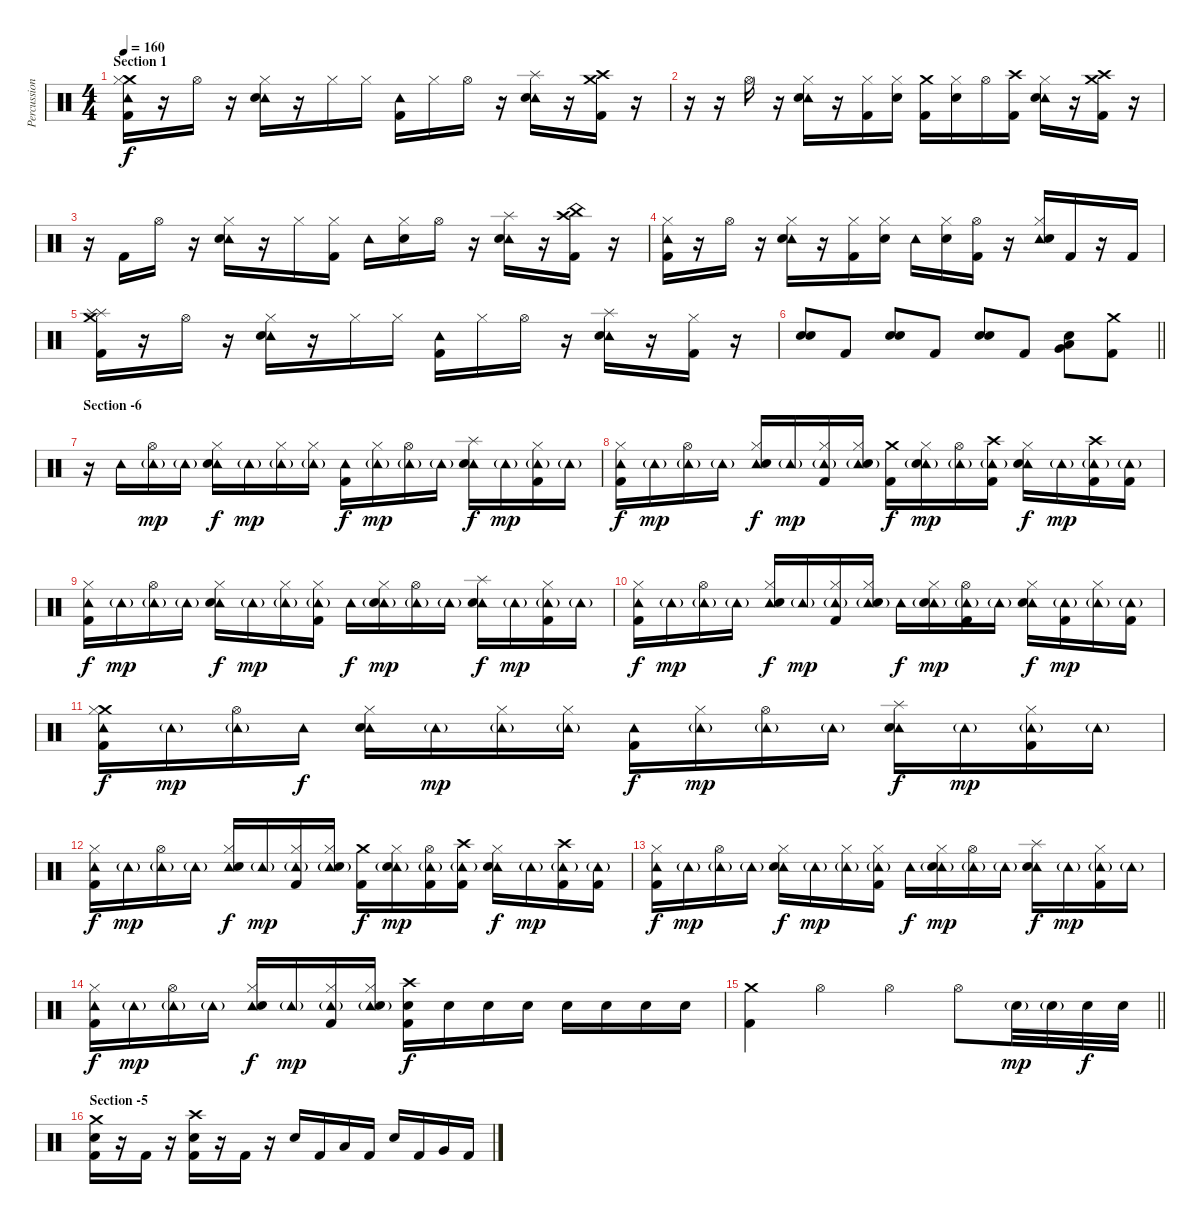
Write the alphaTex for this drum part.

\track ("Percussion" "Percussion") {instrument percussion}
\staff {score}
\articulation defaults
\ts (4 4)
\section ("" "Section 1")
\tempo 160
\clef neutral
\ks c
("Crash medium (hit)" "Tambourine (hit)" "Hi-Hat (closed)" "Kick (hit) 2").16{dy f} r.16 "Hi-Hat (open)".16 r.16 ("Tambourine (hit)" "Hi-Hat (closed)" "Electric Snare (hit)").16 r.16 "Hi-Hat (closed)".16 "Hi-Hat (closed)".16 ("Tambourine (hit)" "Kick (hit) 2").16 "Hi-Hat (closed)".16 "Hi-Hat (open)".16 r.16 ("Tambourine (hit)" "Electric Snare (hit)" "Splash (hit)").16 r.16 ("Crash high (hit)" "Kick (hit) 2" "Crash medium (hit)").16 r.16 |
r.16 r.16 "Hi-Hat (open)".16 r.16 ("Tambourine (hit)" "Hi-Hat (closed)" "Electric Snare (hit)").16 r.16 ("Hi-Hat (closed)" "Kick (hit) 2").16 ("Electric Snare (hit)" "Hi-Hat (closed)").16 ("Crash medium (hit)" "Kick (hit) 2").16 ("Hi-Hat (closed)" "Electric Snare (hit)").16 "Hi-Hat (open)".16 ("Crash high (hit)" "Kick (hit) 2").16 ("Tambourine (hit)" "Hi-Hat (closed)" "Electric Snare (hit)").16 r.16 ("Crash high (hit)" "Crash medium (hit)" "Kick (hit) 2").16 r.16 |
r.16 "Kick (hit) 2".16 "Hi-Hat (open)".16 r.16 ("Tambourine (hit)" "Hi-Hat (closed)" "Electric Snare (hit)").16 r.16 "Hi-Hat (closed)".16 ("Hi-Hat (closed)" "Kick (hit) 2").16 "Tambourine (hit)".16 ("Hi-Hat (closed)" "Electric Snare (hit)").16 "Hi-Hat (open)".16 r.16 ("Tambourine (hit)" "Electric Snare (hit)" "Splash (hit)").16 r.16 ("China (hit)" "Crash high (hit)" "Kick (hit) 2").16 r.16 |
("Tambourine (hit)" "Hi-Hat (closed)" "Kick (hit) 2").16 r.16 "Hi-Hat (open)".16 r.16 ("Tambourine (hit)" "Hi-Hat (closed)" "Electric Snare (hit)").16 r.16 ("Hi-Hat (closed)" "Kick (hit) 2").16 ("Electric Snare (hit)" "Hi-Hat (closed)").16 "Tambourine (hit)".16 ("Hi-Hat (closed)" "Electric Snare (hit)").16 ("Hi-Hat (open)" "Kick (hit) 2").16 r.16 ("Tambourine (hit)" "Hi-Hat (closed)" "Electric Snare (hit)").16 "Kick (hit) 2".16 r.16 "Kick (hit) 2".16 |
("Splash (hit)" "Splash (hit)" "Crash medium (hit)" "Kick (hit) 2").16 r.16 "Hi-Hat (open)".16 r.16 ("Tambourine (hit)" "Hi-Hat (closed)" "Electric Snare (hit)").16 r.16 "Hi-Hat (closed)".16 "Hi-Hat (closed)".16 ("Tambourine (hit)" "Kick (hit) 2").16 "Hi-Hat (closed)".16 "Hi-Hat (open)".16 r.16 ("Tambourine (hit)" "Electric Snare (hit)" "Splash (hit)").16 r.16 ("Hi-Hat (closed)" "Kick (hit) 2").16 r.16 |
\barLineRight lightlight
("Electric Snare (hit)" "Electric Snare (hit)").8{bd 60} "Kick (hit) 2".8 ("Electric Snare (hit)" "Electric Snare (hit)").8{bd 60} "Kick (hit) 2".8 ("Electric Snare (hit)" "Electric Snare (hit)").8{bd 60} "Kick (hit) 2".8 ("Electric Snare (hit)" "Low Tom (hit)" "Very Low Tom (hit)").8{bd 60} ("Kick (hit) 2" "Crash medium (hit)").8 |
\section ("" "Section -6")
r.16 "Tambourine (hit)".16 ("Tambourine (hit)"{g} "Hi-Hat (open)").16{dy mp} "Tambourine (hit)"{g}.16 ("Tambourine (hit)" "Hi-Hat (closed)" "Electric Snare (hit)").16{dy f} "Tambourine (hit)"{g}.16{dy mp} ("Tambourine (hit)"{g} "Hi-Hat (closed)").16 ("Tambourine (hit)"{g} "Hi-Hat (closed)").16 ("Tambourine (hit)" "Kick (hit) 2").16{dy f} ("Tambourine (hit)"{g} "Hi-Hat (closed)").16{dy mp} ("Tambourine (hit)"{g} "Hi-Hat (open)").16 "Tambourine (hit)"{g}.16 ("Tambourine (hit)" "Electric Snare (hit)" "Splash (hit)").16{dy f} "Tambourine (hit)"{g}.16{dy mp} ("Tambourine (hit)"{g} "Hi-Hat (closed)" "Kick (hit) 2").16 "Tambourine (hit)"{g}.16 |
("Tambourine (hit)" "Hi-Hat (closed)" "Kick (hit) 2").16{dy f} "Tambourine (hit)"{g}.16{dy mp} ("Tambourine (hit)"{g} "Hi-Hat (open)").16 "Tambourine (hit)"{g}.16 ("Tambourine (hit)" "Hi-Hat (closed)" "Electric Snare (hit)").16{dy f} "Tambourine (hit)"{g}.16{dy mp} ("Tambourine (hit)"{g} "Hi-Hat (closed)" "Kick (hit) 2").16 ("Tambourine (hit)"{g} "Electric Snare (hit)" "Hi-Hat (closed)").16 ("Crash medium (hit)" "Kick (hit) 2").16{dy f} ("Tambourine (hit)"{g} "Hi-Hat (closed)" "Electric Snare (hit)").16{dy mp} ("Tambourine (hit)"{g} "Hi-Hat (open)").16 ("Tambourine (hit)"{g} "Crash high (hit)" "Kick (hit) 2").16 ("Tambourine (hit)" "Hi-Hat (closed)" "Electric Snare (hit)").16{dy f} "Tambourine (hit)"{g}.16{dy mp} ("Tambourine (hit)"{g} "Crash high (hit)" "Kick (hit) 2").16 ("Tambourine (hit)"{g} "Kick (hit) 2").16 |
("Tambourine (hit)" "Hi-Hat (closed)" "Kick (hit) 2").16{dy f} "Tambourine (hit)"{g}.16{dy mp} ("Tambourine (hit)"{g} "Hi-Hat (open)").16 "Tambourine (hit)"{g}.16 ("Tambourine (hit)" "Hi-Hat (closed)" "Electric Snare (hit)").16{dy f} "Tambourine (hit)"{g}.16{dy mp} ("Tambourine (hit)"{g} "Hi-Hat (closed)").16 ("Tambourine (hit)"{g} "Hi-Hat (closed)" "Kick (hit) 2").16 "Tambourine (hit)".16{dy f} ("Tambourine (hit)"{g} "Hi-Hat (closed)" "Electric Snare (hit)").16{dy mp} ("Tambourine (hit)"{g} "Hi-Hat (open)").16 "Tambourine (hit)"{g}.16 ("Tambourine (hit)" "Electric Snare (hit)" "Splash (hit)").16{dy f} "Tambourine (hit)"{g}.16{dy mp} ("Tambourine (hit)"{g} "Hi-Hat (closed)" "Kick (hit) 2").16 "Tambourine (hit)"{g}.16 |
("Tambourine (hit)" "Hi-Hat (closed)" "Kick (hit) 2").16{dy f} "Tambourine (hit)"{g}.16{dy mp} ("Tambourine (hit)"{g} "Hi-Hat (open)").16 "Tambourine (hit)"{g}.16 ("Tambourine (hit)" "Hi-Hat (closed)" "Electric Snare (hit)").16{dy f} "Tambourine (hit)"{g}.16{dy mp} ("Tambourine (hit)"{g} "Hi-Hat (closed)" "Kick (hit) 2").16 ("Tambourine (hit)"{g} "Electric Snare (hit)" "Hi-Hat (closed)").16 "Tambourine (hit)".16{dy f} ("Tambourine (hit)"{g} "Hi-Hat (closed)" "Electric Snare (hit)").16{dy mp} ("Tambourine (hit)"{g} "Hi-Hat (open)" "Kick (hit) 2").16 "Tambourine (hit)"{g}.16 ("Tambourine (hit)" "Hi-Hat (closed)" "Electric Snare (hit)").16{dy f} ("Tambourine (hit)"{g} "Kick (hit) 2").16{dy mp} ("Tambourine (hit)"{g} "Hi-Hat (closed)").16 ("Tambourine (hit)"{g} "Kick (hit) 2").16 |
("Crash medium (hit)" "Tambourine (hit)" "Hi-Hat (closed)" "Kick (hit) 2").16{dy f} "Tambourine (hit)"{g}.16{dy mp} ("Tambourine (hit)"{g} "Hi-Hat (open)").16 "Tambourine (hit)".16{dy f} ("Tambourine (hit)" "Hi-Hat (closed)" "Electric Snare (hit)").16 "Tambourine (hit)"{g}.16{dy mp} ("Tambourine (hit)"{g} "Hi-Hat (closed)").16 ("Tambourine (hit)"{g} "Hi-Hat (closed)").16 ("Tambourine (hit)" "Kick (hit) 2").16{dy f} ("Tambourine (hit)"{g} "Hi-Hat (closed)").16{dy mp} ("Tambourine (hit)"{g} "Hi-Hat (open)").16 "Tambourine (hit)"{g}.16 ("Tambourine (hit)" "Electric Snare (hit)" "Splash (hit)").16{dy f} "Tambourine (hit)"{g}.16{dy mp} ("Tambourine (hit)"{g} "Hi-Hat (closed)" "Kick (hit) 2").16 "Tambourine (hit)"{g}.16 |
("Tambourine (hit)" "Hi-Hat (closed)" "Kick (hit) 2").16{dy f} "Tambourine (hit)"{g}.16{dy mp} ("Tambourine (hit)"{g} "Hi-Hat (open)").16 "Tambourine (hit)"{g}.16 ("Tambourine (hit)" "Hi-Hat (closed)" "Electric Snare (hit)").16{dy f} "Tambourine (hit)"{g}.16{dy mp} ("Tambourine (hit)"{g} "Hi-Hat (closed)" "Kick (hit) 2").16 ("Tambourine (hit)"{g} "Electric Snare (hit)" "Hi-Hat (closed)").16 ("Crash medium (hit)" "Kick (hit) 2").16{dy f} ("Tambourine (hit)"{g} "Hi-Hat (closed)" "Electric Snare (hit)").16{dy mp} ("Tambourine (hit)"{g} "Hi-Hat (open)" "Kick (hit) 2").16 ("Tambourine (hit)"{g} "Crash high (hit)" "Kick (hit) 2").16 ("Tambourine (hit)" "Hi-Hat (closed)" "Electric Snare (hit)").16{dy f} "Tambourine (hit)"{g}.16{dy mp} ("Tambourine (hit)"{g} "Crash high (hit)" "Kick (hit) 2").16 ("Tambourine (hit)"{g} "Kick (hit) 2").16 |
("Tambourine (hit)" "Hi-Hat (closed)" "Kick (hit) 2").16{dy f} "Tambourine (hit)"{g}.16{dy mp} ("Tambourine (hit)"{g} "Hi-Hat (open)").16 "Tambourine (hit)"{g}.16 ("Tambourine (hit)" "Hi-Hat (closed)" "Electric Snare (hit)").16{dy f} "Tambourine (hit)"{g}.16{dy mp} ("Tambourine (hit)"{g} "Hi-Hat (closed)").16 ("Tambourine (hit)"{g} "Hi-Hat (closed)" "Kick (hit) 2").16 "Tambourine (hit)".16{dy f} ("Tambourine (hit)"{g} "Hi-Hat (closed)" "Electric Snare (hit)").16{dy mp} ("Tambourine (hit)"{g} "Hi-Hat (open)").16 "Tambourine (hit)"{g}.16 ("Tambourine (hit)" "Electric Snare (hit)" "Splash (hit)").16{dy f} "Tambourine (hit)"{g}.16{dy mp} ("Tambourine (hit)"{g} "Hi-Hat (closed)" "Kick (hit) 2").16 "Tambourine (hit)"{g}.16 |
("Tambourine (hit)" "Hi-Hat (closed)" "Kick (hit) 2").16{dy f} "Tambourine (hit)"{g}.16{dy mp} ("Tambourine (hit)"{g} "Hi-Hat (open)").16 "Tambourine (hit)"{g}.16 ("Tambourine (hit)" "Hi-Hat (closed)" "Electric Snare (hit)").16{dy f} "Tambourine (hit)"{g}.16{dy mp} ("Tambourine (hit)"{g} "Hi-Hat (closed)" "Kick (hit) 2").16 ("Tambourine (hit)"{g} "Electric Snare (hit)" "Hi-Hat (closed)").16 ("Crash high (hit)" "Electric Snare (hit)" "Kick (hit) 2").16{dy f} "Electric Snare (hit)".16 "Electric Snare (hit)".16 "Electric Snare (hit)".16 "Electric Snare (hit)".16 "Electric Snare (hit)".16 "Electric Snare (hit)".16 "Electric Snare (hit)".16 |
\barLineRight lightlight
("Crash medium (hit)" "Kick (hit) 2").4 "Hi-Hat (open)".4 "Hi-Hat (open)".4 "Hi-Hat (open)".8 "Electric Snare (hit)"{g}.32{dy mp} "Electric Snare (hit)"{g}.32 "Electric Snare (hit)".32{dy f} "Electric Snare (hit)".32 |
\section ("" "Section -5")
("Crash medium (hit)" "Electric Snare (hit)" "Kick (hit) 2").16 r.16 "Kick (hit) 2".16 r.16 ("Crash high (hit)" "Electric Snare (hit)" "Kick (hit) 2").16 r.16 "Kick (hit) 2".16 r.16 "Electric Snare (hit)".16 "Kick (hit) 2".16 "Low Tom (hit)".16 "Kick (hit) 2".16 "Electric Snare (hit)".16 "Kick (hit) 2".16 "Very Low Tom (hit)".16 "Kick (hit) 2".16
